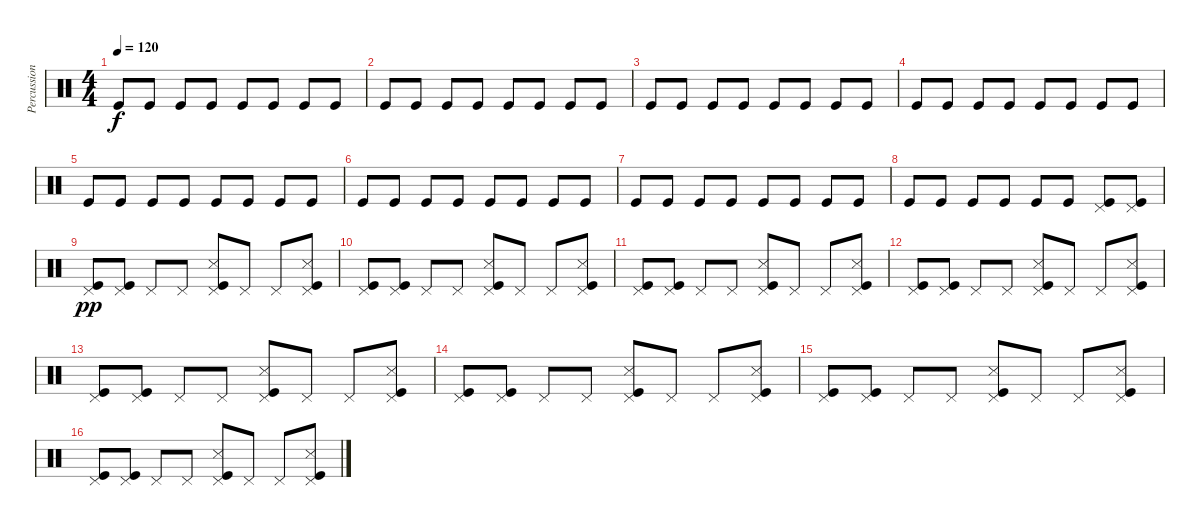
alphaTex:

\track ("Percussions" "Percussion") {instrument percussion}
\staff {score}
\articulation defaults
\ts (4 4)
\tempo 120
\clef neutral
\ks c "Kick (hit)".8{dy f} "Kick (hit)".8 "Kick (hit)".8 "Kick (hit)".8 "Kick (hit)".8 "Kick (hit)".8 "Kick (hit)".8 "Kick (hit)".8
|
"Kick (hit)".8 "Kick (hit)".8 "Kick (hit)".8 "Kick (hit)".8 "Kick (hit)".8 "Kick (hit)".8 "Kick (hit)".8 "Kick (hit)".8 |
"Kick (hit)".8 "Kick (hit)".8 "Kick (hit)".8 "Kick (hit)".8 "Kick (hit)".8 "Kick (hit)".8 "Kick (hit)".8 "Kick (hit)".8 |
"Kick (hit)".8 "Kick (hit)".8 "Kick (hit)".8 "Kick (hit)".8 "Kick (hit)".8 "Kick (hit)".8 "Kick (hit)".8 "Kick (hit)".8 |
"Kick (hit)".8 "Kick (hit)".8 "Kick (hit)".8 "Kick (hit)".8 "Kick (hit)".8 "Kick (hit)".8 "Kick (hit)".8 "Kick (hit)".8 |
"Kick (hit)".8 "Kick (hit)".8 "Kick (hit)".8 "Kick (hit)".8 "Kick (hit)".8 "Kick (hit)".8 "Kick (hit)".8 "Kick (hit)".8 |
"Kick (hit)".8 "Kick (hit)".8 "Kick (hit)".8 "Kick (hit)".8 "Kick (hit)".8 "Kick (hit)".8 "Kick (hit)".8 "Kick (hit)".8 |
"Kick (hit)".8 "Kick (hit)".8 "Kick (hit)".8 "Kick (hit)".8 "Kick (hit)".8 "Kick (hit)".8 ("Kick (hit)" "Pedal Hi-Hat (hit)").8 ("Kick (hit)" "Pedal Hi-Hat (hit)").8 |
("Kick (hit)" "Pedal Hi-Hat (hit)").8{dy pp} ("Kick (hit)" "Pedal Hi-Hat (hit)").8 "Pedal Hi-Hat (hit)".8 "Pedal Hi-Hat (hit)".8 ("Snare (side stick) 3" "Kick (hit)" "Pedal Hi-Hat (hit)").8 "Pedal Hi-Hat (hit)".8 "Pedal Hi-Hat (hit)".8 ("Snare (side stick) 3" "Kick (hit)" "Pedal Hi-Hat (hit)").8 |
("Kick (hit)" "Pedal Hi-Hat (hit)").8 ("Kick (hit)" "Pedal Hi-Hat (hit)").8 "Pedal Hi-Hat (hit)".8 "Pedal Hi-Hat (hit)".8 ("Snare (side stick) 3" "Kick (hit)" "Pedal Hi-Hat (hit)").8 "Pedal Hi-Hat (hit)".8 "Pedal Hi-Hat (hit)".8 ("Snare (side stick) 3" "Kick (hit)" "Pedal Hi-Hat (hit)").8 |
("Kick (hit)" "Pedal Hi-Hat (hit)").8 ("Kick (hit)" "Pedal Hi-Hat (hit)").8 "Pedal Hi-Hat (hit)".8 "Pedal Hi-Hat (hit)".8 ("Snare (side stick) 3" "Kick (hit)" "Pedal Hi-Hat (hit)").8 "Pedal Hi-Hat (hit)".8 "Pedal Hi-Hat (hit)".8 ("Snare (side stick) 3" "Kick (hit)" "Pedal Hi-Hat (hit)").8 |
("Kick (hit)" "Pedal Hi-Hat (hit)").8 ("Kick (hit)" "Pedal Hi-Hat (hit)").8 "Pedal Hi-Hat (hit)".8 "Pedal Hi-Hat (hit)".8 ("Snare (side stick) 3" "Kick (hit)" "Pedal Hi-Hat (hit)").8 "Pedal Hi-Hat (hit)".8 "Pedal Hi-Hat (hit)".8 ("Snare (side stick) 3" "Kick (hit)" "Pedal Hi-Hat (hit)").8 |
("Kick (hit)" "Pedal Hi-Hat (hit)").8 ("Kick (hit)" "Pedal Hi-Hat (hit)").8 "Pedal Hi-Hat (hit)".8 "Pedal Hi-Hat (hit)".8 ("Snare (side stick) 3" "Kick (hit)" "Pedal Hi-Hat (hit)").8 "Pedal Hi-Hat (hit)".8 "Pedal Hi-Hat (hit)".8 ("Snare (side stick) 3" "Kick (hit)" "Pedal Hi-Hat (hit)").8 |
("Kick (hit)" "Pedal Hi-Hat (hit)").8 ("Kick (hit)" "Pedal Hi-Hat (hit)").8 "Pedal Hi-Hat (hit)".8 "Pedal Hi-Hat (hit)".8 ("Snare (side stick) 3" "Kick (hit)" "Pedal Hi-Hat (hit)").8 "Pedal Hi-Hat (hit)".8 "Pedal Hi-Hat (hit)".8 ("Snare (side stick) 3" "Kick (hit)" "Pedal Hi-Hat (hit)").8 |
("Kick (hit)" "Pedal Hi-Hat (hit)").8 ("Kick (hit)" "Pedal Hi-Hat (hit)").8 "Pedal Hi-Hat (hit)".8 "Pedal Hi-Hat (hit)".8 ("Snare (side stick) 3" "Kick (hit)" "Pedal Hi-Hat (hit)").8 "Pedal Hi-Hat (hit)".8 "Pedal Hi-Hat (hit)".8 ("Snare (side stick) 3" "Kick (hit)" "Pedal Hi-Hat (hit)").8 |
("Kick (hit)" "Pedal Hi-Hat (hit)").8 ("Kick (hit)" "Pedal Hi-Hat (hit)").8 "Pedal Hi-Hat (hit)".8 "Pedal Hi-Hat (hit)".8 ("Snare (side stick) 3" "Kick (hit)" "Pedal Hi-Hat (hit)").8 "Pedal Hi-Hat (hit)".8 "Pedal Hi-Hat (hit)".8 ("Snare (side stick) 3" "Kick (hit)" "Pedal Hi-Hat (hit)").8
